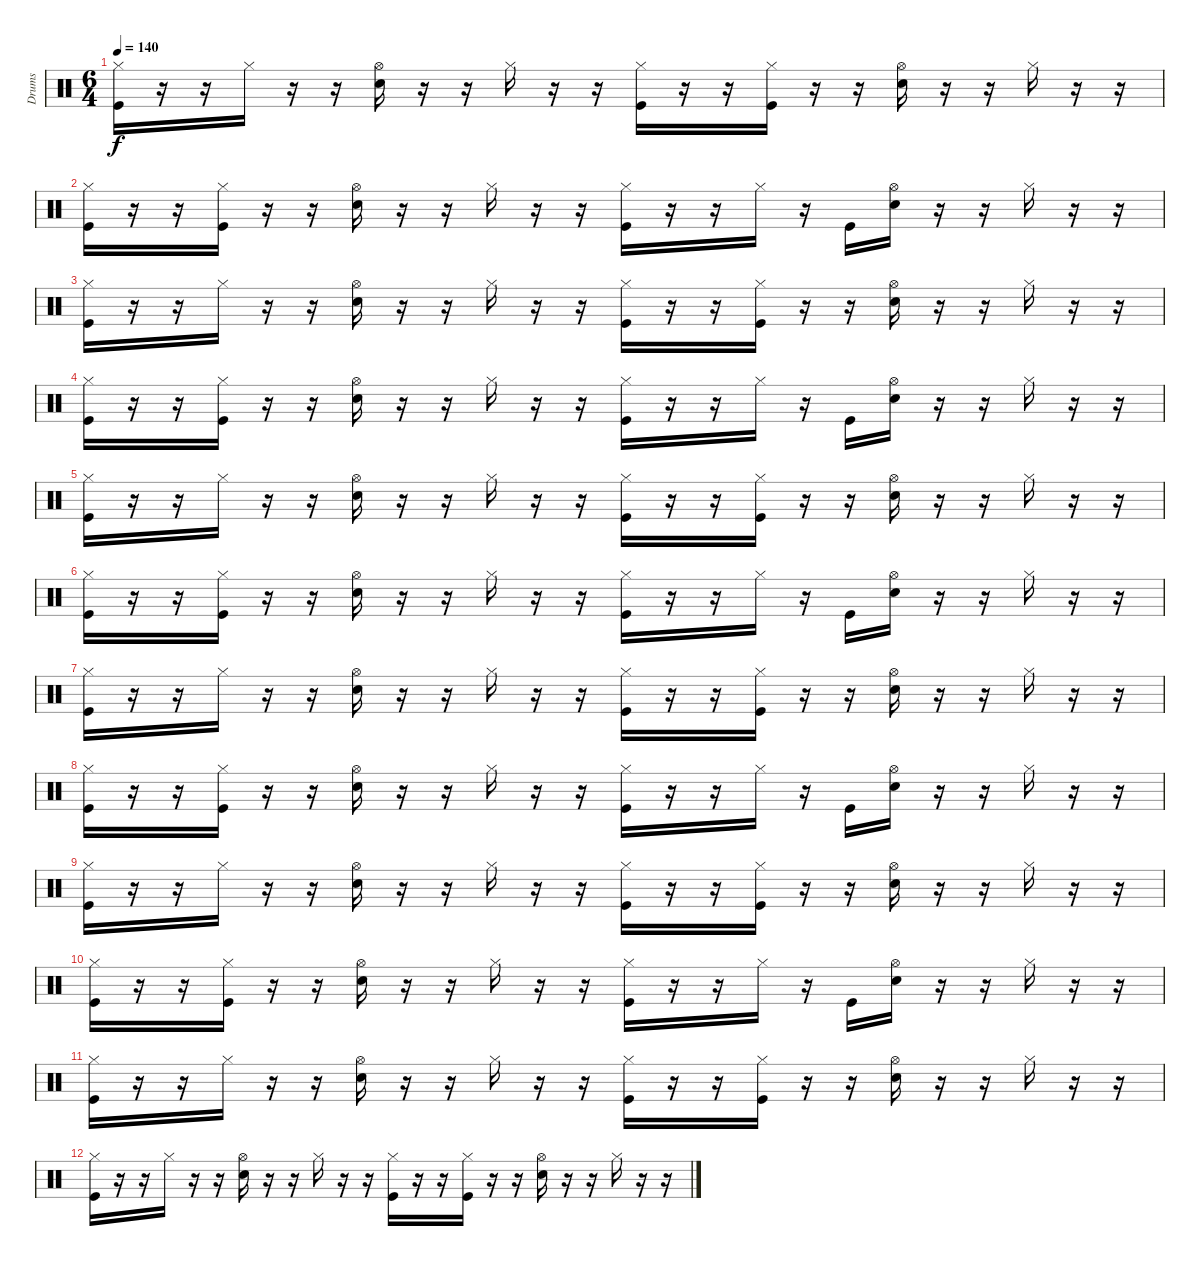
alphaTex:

\track ("Drums" "Drums") {instrument percussion}
\staff {score}
\articulation defaults
\ts (6 4)
\tempo 140
\clef neutral
\ks c
("Hi-Hat (closed)" "Kick (hit)").16{dy f} r.16 r.16 "Hi-Hat (closed)".16 r.16 r.16 ("Hi-Hat (open)" "Snare (hit) 2").16 r.16 r.16 "Hi-Hat (closed)".16 r.16 r.16 ("Hi-Hat (closed)" "Kick (hit)").16 r.16 r.16 ("Hi-Hat (closed)" "Kick (hit)").16 r.16 r.16 ("Hi-Hat (open)" "Snare (hit) 2").16 r.16 r.16 "Hi-Hat (closed)".16 r.16 r.16 |
("Hi-Hat (closed)" "Kick (hit)").16{volume 6} r.16 r.16 ("Hi-Hat (closed)" "Kick (hit)").16 r.16 r.16 ("Hi-Hat (open)" "Snare (hit) 2").16 r.16 r.16 "Hi-Hat (closed)".16 r.16 r.16 ("Hi-Hat (closed)" "Kick (hit)").16 r.16 r.16 "Hi-Hat (closed)".16 r.16 "Kick (hit)".16 ("Hi-Hat (open)" "Snare (hit) 2").16 r.16 r.16 "Hi-Hat (closed)".16 r.16 r.16 |
("Hi-Hat (closed)" "Kick (hit)").16 r.16 r.16 "Hi-Hat (closed)".16 r.16 r.16 ("Hi-Hat (open)" "Snare (hit) 2").16 r.16 r.16 "Hi-Hat (closed)".16 r.16 r.16 ("Hi-Hat (closed)" "Kick (hit)").16 r.16 r.16 ("Hi-Hat (closed)" "Kick (hit)").16 r.16 r.16 ("Hi-Hat (open)" "Snare (hit) 2").16 r.16 r.16 "Hi-Hat (closed)".16 r.16 r.16 |
("Hi-Hat (closed)" "Kick (hit)").16 r.16 r.16 ("Hi-Hat (closed)" "Kick (hit)").16 r.16 r.16 ("Hi-Hat (open)" "Snare (hit) 2").16 r.16 r.16 "Hi-Hat (closed)".16 r.16 r.16 ("Hi-Hat (closed)" "Kick (hit)").16 r.16 r.16 "Hi-Hat (closed)".16 r.16 "Kick (hit)".16 ("Hi-Hat (open)" "Snare (hit) 2").16 r.16 r.16 "Hi-Hat (closed)".16 r.16 r.16 |
("Hi-Hat (closed)" "Kick (hit)").16 r.16 r.16 "Hi-Hat (closed)".16 r.16 r.16 ("Hi-Hat (open)" "Snare (hit) 2").16 r.16 r.16 "Hi-Hat (closed)".16 r.16 r.16 ("Hi-Hat (closed)" "Kick (hit)").16 r.16 r.16 ("Hi-Hat (closed)" "Kick (hit)").16 r.16 r.16 ("Hi-Hat (open)" "Snare (hit) 2").16 r.16 r.16 "Hi-Hat (closed)".16 r.16 r.16 |
("Hi-Hat (closed)" "Kick (hit)").16{volume 3} r.16 r.16 ("Hi-Hat (closed)" "Kick (hit)").16 r.16 r.16 ("Hi-Hat (open)" "Snare (hit) 2").16 r.16 r.16 "Hi-Hat (closed)".16 r.16 r.16 ("Hi-Hat (closed)" "Kick (hit)").16 r.16 r.16 "Hi-Hat (closed)".16 r.16 "Kick (hit)".16 ("Hi-Hat (open)" "Snare (hit) 2").16 r.16 r.16 "Hi-Hat (closed)".16 r.16 r.16 |
("Hi-Hat (closed)" "Kick (hit)").16 r.16 r.16 "Hi-Hat (closed)".16 r.16 r.16 ("Hi-Hat (open)" "Snare (hit) 2").16 r.16 r.16 "Hi-Hat (closed)".16 r.16 r.16 ("Hi-Hat (closed)" "Kick (hit)").16 r.16 r.16 ("Hi-Hat (closed)" "Kick (hit)").16 r.16 r.16 ("Hi-Hat (open)" "Snare (hit) 2").16 r.16 r.16 "Hi-Hat (closed)".16 r.16 r.16 |
("Hi-Hat (closed)" "Kick (hit)").16 r.16 r.16 ("Hi-Hat (closed)" "Kick (hit)").16 r.16 r.16 ("Hi-Hat (open)" "Snare (hit) 2").16 r.16 r.16 "Hi-Hat (closed)".16 r.16 r.16 ("Hi-Hat (closed)" "Kick (hit)").16 r.16 r.16 "Hi-Hat (closed)".16 r.16 "Kick (hit)".16 ("Hi-Hat (open)" "Snare (hit) 2").16 r.16 r.16 "Hi-Hat (closed)".16 r.16 r.16 |
("Hi-Hat (closed)" "Kick (hit)").16 r.16 r.16 "Hi-Hat (closed)".16 r.16 r.16 ("Hi-Hat (open)" "Snare (hit) 2").16 r.16 r.16 "Hi-Hat (closed)".16 r.16 r.16 ("Hi-Hat (closed)" "Kick (hit)").16 r.16 r.16 ("Hi-Hat (closed)" "Kick (hit)").16 r.16 r.16 ("Hi-Hat (open)" "Snare (hit) 2").16 r.16 r.16 "Hi-Hat (closed)".16 r.16 r.16 |
("Hi-Hat (closed)" "Kick (hit)").16{volume 0} r.16 r.16 ("Hi-Hat (closed)" "Kick (hit)").16 r.16 r.16 ("Hi-Hat (open)" "Snare (hit) 2").16 r.16 r.16 "Hi-Hat (closed)".16 r.16 r.16 ("Hi-Hat (closed)" "Kick (hit)").16 r.16 r.16 "Hi-Hat (closed)".16 r.16 "Kick (hit)".16 ("Hi-Hat (open)" "Snare (hit) 2").16 r.16 r.16 "Hi-Hat (closed)".16 r.16 r.16 |
("Hi-Hat (closed)" "Kick (hit)").16 r.16 r.16 "Hi-Hat (closed)".16 r.16 r.16 ("Hi-Hat (open)" "Snare (hit) 2").16 r.16 r.16 "Hi-Hat (closed)".16 r.16 r.16 ("Hi-Hat (closed)" "Kick (hit)").16 r.16 r.16 ("Hi-Hat (closed)" "Kick (hit)").16 r.16 r.16 ("Hi-Hat (open)" "Snare (hit) 2").16 r.16 r.16 "Hi-Hat (closed)".16 r.16 r.16 |
("Hi-Hat (closed)" "Kick (hit)").16 r.16 r.16 "Hi-Hat (closed)".16 r.16 r.16 ("Hi-Hat (open)" "Snare (hit) 2").16 r.16 r.16 "Hi-Hat (closed)".16 r.16 r.16 ("Hi-Hat (closed)" "Kick (hit)").16 r.16 r.16 ("Hi-Hat (closed)" "Kick (hit)").16 r.16 r.16 ("Hi-Hat (open)" "Snare (hit) 2").16 r.16 r.16 "Hi-Hat (closed)".16 r.16 r.16
